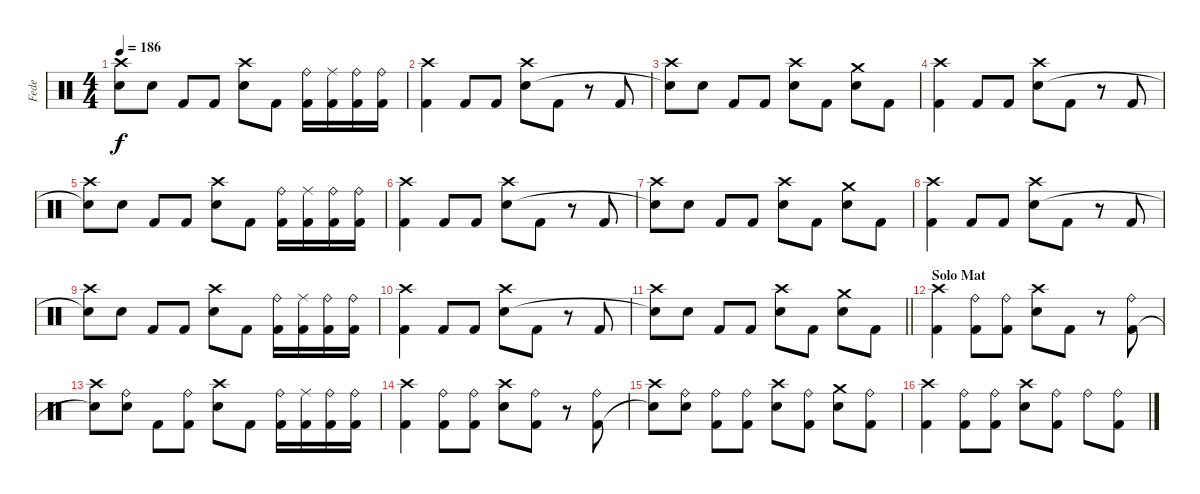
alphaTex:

\track ("Fede" "Fede") {instrument percussion}
\staff {score}
\articulation defaults
\ts (4 4)
\tempo 186
\clef neutral
\ks c
("Crash high (hit)" "Snare (hit)"{t}).8{dy f} "Snare (hit) 2".8 "Kick (hit) 2".8 "Kick (hit) 2".8 ("Crash high (hit)" "Snare (hit) 2").8 "Kick (hit) 2".8 ("Ride (bell)" "Kick (hit) 2").16 ("Ride (middle)" "Kick (hit) 2").16 ("Ride (bell)" "Kick (hit) 2").16 ("Ride (bell)" "Kick (hit) 2").16 |
("Crash high (hit)" "Kick (hit) 2").4 "Kick (hit) 2".8 "Kick (hit) 2".8 ("Crash high (hit)" "Snare (hit) 2").8 "Kick (hit) 2".8 r.8 "Kick (hit) 2".8 |
("Crash high (hit)" "Snare (hit)"{t}).8 "Snare (hit) 2".8 "Kick (hit) 2".8 "Kick (hit) 2".8 ("Crash high (hit)" "Snare (hit) 2").8 "Kick (hit) 2".8 ("Crash medium (hit)" "Snare (hit) 2").8 "Kick (hit) 2".8 |
("Crash high (hit)" "Kick (hit) 2").4 "Kick (hit) 2".8 "Kick (hit) 2".8 ("Crash high (hit)" "Snare (hit) 2").8 "Kick (hit) 2".8 r.8 "Kick (hit) 2".8 |
("Crash high (hit)" "Snare (hit)"{t}).8 "Snare (hit) 2".8 "Kick (hit) 2".8 "Kick (hit) 2".8 ("Crash high (hit)" "Snare (hit) 2").8 "Kick (hit) 2".8 ("Ride (bell)" "Kick (hit) 2").16 ("Ride (middle)" "Kick (hit) 2").16 ("Ride (bell)" "Kick (hit) 2").16 ("Ride (bell)" "Kick (hit) 2").16 |
("Crash high (hit)" "Kick (hit) 2").4 "Kick (hit) 2".8 "Kick (hit) 2".8 ("Crash high (hit)" "Snare (hit) 2").8 "Kick (hit) 2".8 r.8 "Kick (hit) 2".8 |
("Crash high (hit)" "Snare (hit)"{t}).8 "Snare (hit) 2".8 "Kick (hit) 2".8 "Kick (hit) 2".8 ("Crash high (hit)" "Snare (hit) 2").8 "Kick (hit) 2".8 ("Crash medium (hit)" "Snare (hit) 2").8 "Kick (hit) 2".8 |
("Crash high (hit)" "Kick (hit) 2").4 "Kick (hit) 2".8 "Kick (hit) 2".8 ("Crash high (hit)" "Snare (hit) 2").8 "Kick (hit) 2".8 r.8 "Kick (hit) 2".8 |
("Crash high (hit)" "Snare (hit)"{t}).8 "Snare (hit) 2".8 "Kick (hit) 2".8 "Kick (hit) 2".8 ("Crash high (hit)" "Snare (hit) 2").8 "Kick (hit) 2".8 ("Ride (bell)" "Kick (hit) 2").16 ("Ride (middle)" "Kick (hit) 2").16 ("Ride (bell)" "Kick (hit) 2").16 ("Ride (bell)" "Kick (hit) 2").16 |
("Crash high (hit)" "Kick (hit) 2").4 "Kick (hit) 2".8 "Kick (hit) 2".8 ("Crash high (hit)" "Snare (hit) 2").8 "Kick (hit) 2".8 r.8 "Kick (hit) 2".8 |
\barLineRight lightlight
("Crash high (hit)" "Snare (hit)"{t}).8 "Snare (hit) 2".8 "Kick (hit) 2".8 "Kick (hit) 2".8 ("Crash high (hit)" "Snare (hit) 2").8 "Kick (hit) 2".8 ("Crash medium (hit)" "Snare (hit) 2").8 "Kick (hit) 2".8 |
\section ("" "Solo Mat")
("Crash high (hit)" "Kick (hit) 2").4 ("Ride (bell)" "Kick (hit) 2").8 ("Ride (bell)" "Kick (hit) 2").8 ("Crash high (hit)" "Snare (hit) 2").8 "Kick (hit) 2".8 r.8 ("Ride (bell)" "Kick (hit) 2").8 |
("Crash high (hit)" "Snare (hit)"{t}).8 ("Ride (bell)" "Snare (hit) 2").8 "Kick (hit) 2".8 ("Ride (bell)" "Kick (hit) 2").8 ("Crash high (hit)" "Snare (hit) 2").8 "Kick (hit) 2".8 ("Ride (bell)" "Kick (hit) 2").16 ("Ride (middle)" "Kick (hit) 2").16 ("Ride (bell)" "Kick (hit) 2").16 ("Ride (bell)" "Kick (hit) 2").16 |
("Crash high (hit)" "Kick (hit) 2").4 ("Ride (bell)" "Kick (hit) 2").8 ("Ride (bell)" "Kick (hit) 2").8 ("Crash high (hit)" "Snare (hit) 2").8 ("Ride (bell)" "Kick (hit) 2").8 r.8 ("Ride (bell)" "Kick (hit) 2").8 |
("Crash high (hit)" "Snare (hit)"{t}).8 ("Ride (bell)" "Snare (hit) 2").8 ("Ride (bell)" "Kick (hit) 2").8 ("Ride (bell)" "Kick (hit) 2").8 ("Crash high (hit)" "Snare (hit) 2").8 ("Ride (bell)" "Kick (hit) 2").8 ("Crash medium (hit)" "Snare (hit) 2").8 ("Ride (bell)" "Kick (hit) 2").8 |
("Crash high (hit)" "Kick (hit) 2").4 ("Ride (bell)" "Kick (hit) 2").8 ("Ride (bell)" "Kick (hit) 2").8 ("Crash high (hit)" "Snare (hit) 2").8 ("Ride (bell)" "Kick (hit) 2").8 "Ride (bell)".8 ("Ride (bell)" "Kick (hit) 2").8
